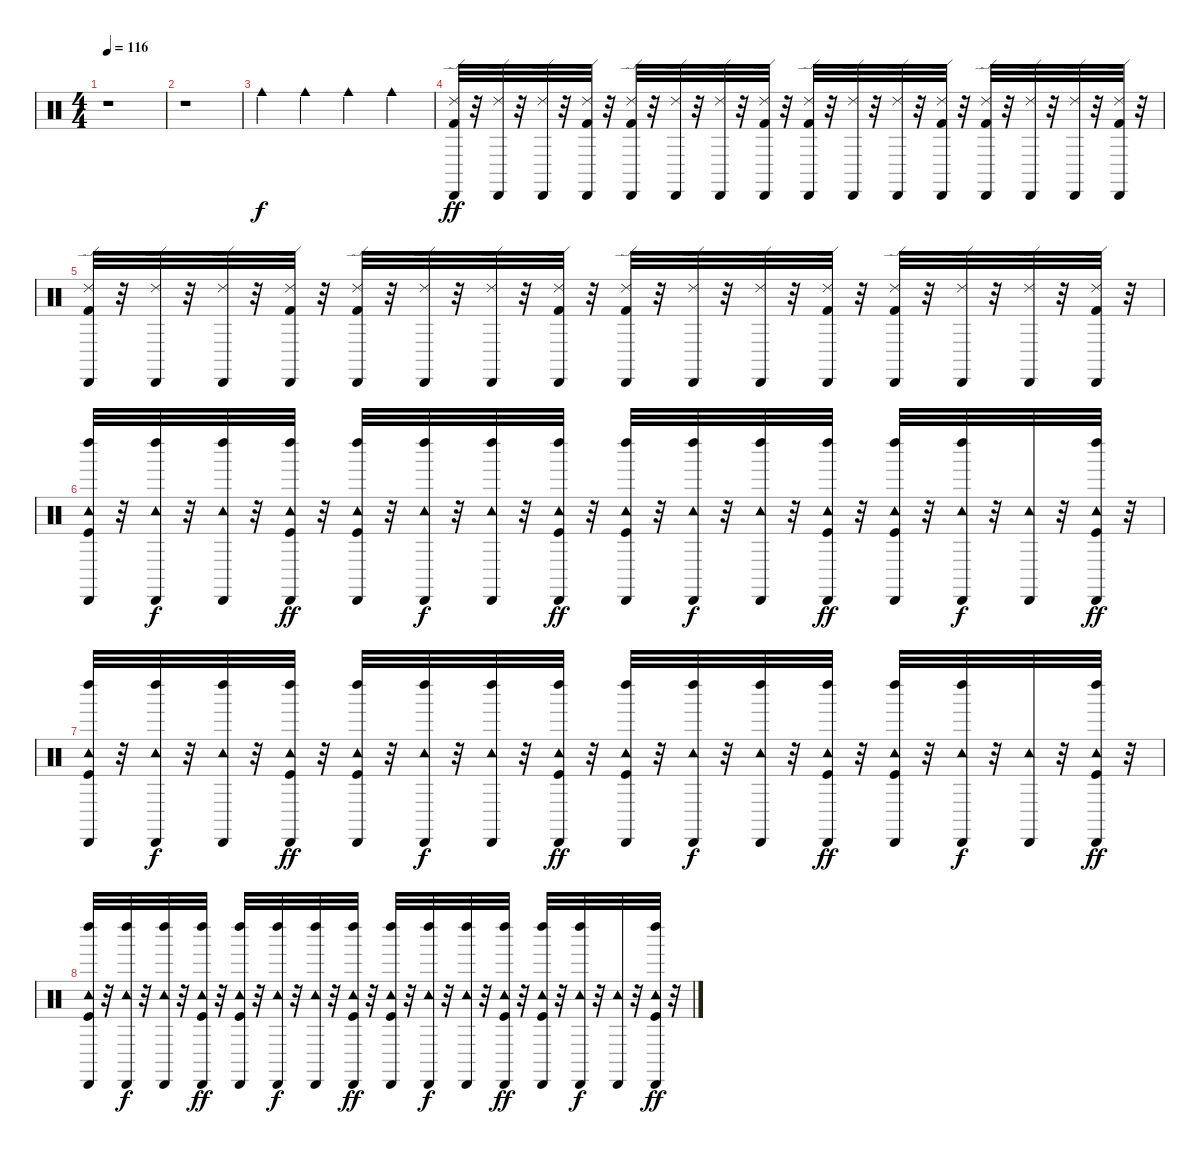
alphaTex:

\track "" {instrument percussion}
\staff {score}
\articulation defaults
\ts (4 4)
\tempo 116
\clef neutral
\ks c
r.1{dy f} |
r.1 |
"Cowbell medium (hit)".4 "Cowbell medium (hit)".4 "Cowbell medium (hit)".4 "Cowbell medium (hit)".4 |
("Kick (hit) 2" "Ride (edge) 2" "Cabasa (hit)").32{dy ff} r.32 ("Ride (edge) 2" "Cabasa (hit)").32 r.32 ("Ride (edge) 2" "Cabasa (hit)").32 r.32 ("Kick (hit) 2" "Ride (edge) 2" "Cabasa (hit)").32 r.32 ("Kick (hit) 2" "Ride (edge) 2" "Cabasa (hit)").32 r.32 ("Ride (edge) 2" "Cabasa (hit)").32 r.32 ("Ride (edge) 2" "Cabasa (hit)").32 r.32 ("Kick (hit) 2" "Ride (edge) 2" "Cabasa (hit)").32 r.32 ("Kick (hit) 2" "Ride (edge) 2" "Cabasa (hit)").32 r.32 ("Ride (edge) 2" "Cabasa (hit)").32 r.32 ("Ride (edge) 2" "Cabasa (hit)").32 r.32 ("Kick (hit) 2" "Ride (edge) 2" "Cabasa (hit)").32 r.32 ("Kick (hit) 2" "Ride (edge) 2" "Cabasa (hit)").32 r.32 ("Ride (edge) 2" "Cabasa (hit)").32 r.32 ("Ride (edge) 2" "Cabasa (hit)").32 r.32 ("Kick (hit) 2" "Ride (edge) 2" "Cabasa (hit)").32 r.32 |
("Kick (hit) 2" "Ride (edge) 2" "Cabasa (hit)").32 r.32 ("Ride (edge) 2" "Cabasa (hit)").32 r.32 ("Ride (edge) 2" "Cabasa (hit)").32 r.32 ("Kick (hit) 2" "Ride (edge) 2" "Cabasa (hit)").32 r.32 ("Kick (hit) 2" "Ride (edge) 2" "Cabasa (hit)").32 r.32 ("Ride (edge) 2" "Cabasa (hit)").32 r.32 ("Ride (edge) 2" "Cabasa (hit)").32 r.32 ("Kick (hit) 2" "Ride (edge) 2" "Cabasa (hit)").32 r.32 ("Kick (hit) 2" "Ride (edge) 2" "Cabasa (hit)").32 r.32 ("Ride (edge) 2" "Cabasa (hit)").32 r.32 ("Ride (edge) 2" "Cabasa (hit)").32 r.32 ("Kick (hit) 2" "Ride (edge) 2" "Cabasa (hit)").32 r.32 ("Kick (hit) 2" "Ride (edge) 2" "Cabasa (hit)").32 r.32 ("Ride (edge) 2" "Cabasa (hit)").32 r.32 ("Ride (edge) 2" "Cabasa (hit)").32 r.32 ("Kick (hit) 2" "Ride (edge) 2" "Cabasa (hit)").32 r.32 |
("Kick (hit)" "Tambourine (hit)" "Cabasa (hit)" "Left Maraca (hit)").32 r.32 ("Tambourine (hit)" "Cabasa (hit)" "Left Maraca (hit)").32{dy f} r.32 ("Tambourine (hit)" "Cabasa (hit)" "Left Maraca (hit)").32 r.32 ("Kick (hit)" "Tambourine (hit)" "Cabasa (hit)" "Left Maraca (hit)").32{dy ff} r.32 ("Kick (hit)" "Tambourine (hit)" "Cabasa (hit)" "Left Maraca (hit)").32 r.32 ("Tambourine (hit)" "Cabasa (hit)" "Left Maraca (hit)").32{dy f} r.32 ("Tambourine (hit)" "Cabasa (hit)" "Left Maraca (hit)").32 r.32 ("Kick (hit)" "Tambourine (hit)" "Cabasa (hit)" "Left Maraca (hit)").32{dy ff} r.32 ("Kick (hit)" "Tambourine (hit)" "Cabasa (hit)" "Left Maraca (hit)").32 r.32 ("Tambourine (hit)" "Cabasa (hit)" "Left Maraca (hit)").32{dy f} r.32 ("Tambourine (hit)" "Cabasa (hit)" "Left Maraca (hit)").32 r.32 ("Kick (hit)" "Tambourine (hit)" "Cabasa (hit)" "Left Maraca (hit)").32{dy ff} r.32 ("Kick (hit)" "Tambourine (hit)" "Cabasa (hit)" "Left Maraca (hit)").32 r.32 ("Tambourine (hit)" "Cabasa (hit)" "Left Maraca (hit)").32{dy f} r.32 ("Tambourine (hit)" "Cabasa (hit)").32 r.32 ("Kick (hit)" "Tambourine (hit)" "Cabasa (hit)" "Left Maraca (hit)").32{dy ff} r.32 |
("Kick (hit)" "Tambourine (hit)" "Cabasa (hit)" "Left Maraca (hit)").32 r.32 ("Tambourine (hit)" "Cabasa (hit)" "Left Maraca (hit)").32{dy f} r.32 ("Tambourine (hit)" "Cabasa (hit)" "Left Maraca (hit)").32 r.32 ("Kick (hit)" "Tambourine (hit)" "Cabasa (hit)" "Left Maraca (hit)").32{dy ff} r.32 ("Kick (hit)" "Tambourine (hit)" "Cabasa (hit)" "Left Maraca (hit)").32 r.32 ("Tambourine (hit)" "Cabasa (hit)" "Left Maraca (hit)").32{dy f} r.32 ("Tambourine (hit)" "Cabasa (hit)" "Left Maraca (hit)").32 r.32 ("Kick (hit)" "Tambourine (hit)" "Cabasa (hit)" "Left Maraca (hit)").32{dy ff} r.32 ("Kick (hit)" "Tambourine (hit)" "Cabasa (hit)" "Left Maraca (hit)").32 r.32 ("Tambourine (hit)" "Cabasa (hit)" "Left Maraca (hit)").32{dy f} r.32 ("Tambourine (hit)" "Cabasa (hit)" "Left Maraca (hit)").32 r.32 ("Kick (hit)" "Tambourine (hit)" "Cabasa (hit)" "Left Maraca (hit)").32{dy ff} r.32 ("Kick (hit)" "Tambourine (hit)" "Cabasa (hit)" "Left Maraca (hit)").32 r.32 ("Tambourine (hit)" "Cabasa (hit)" "Left Maraca (hit)").32{dy f} r.32 ("Tambourine (hit)" "Cabasa (hit)").32 r.32 ("Kick (hit)" "Tambourine (hit)" "Cabasa (hit)" "Left Maraca (hit)").32{dy ff} r.32 |
("Kick (hit)" "Tambourine (hit)" "Cabasa (hit)" "Left Maraca (hit)").32 r.32 ("Tambourine (hit)" "Cabasa (hit)" "Left Maraca (hit)").32{dy f} r.32 ("Tambourine (hit)" "Cabasa (hit)" "Left Maraca (hit)").32 r.32 ("Kick (hit)" "Tambourine (hit)" "Cabasa (hit)" "Left Maraca (hit)").32{dy ff} r.32 ("Kick (hit)" "Tambourine (hit)" "Cabasa (hit)" "Left Maraca (hit)").32 r.32 ("Tambourine (hit)" "Cabasa (hit)" "Left Maraca (hit)").32{dy f} r.32 ("Tambourine (hit)" "Cabasa (hit)" "Left Maraca (hit)").32 r.32 ("Kick (hit)" "Tambourine (hit)" "Cabasa (hit)" "Left Maraca (hit)").32{dy ff} r.32 ("Kick (hit)" "Tambourine (hit)" "Cabasa (hit)" "Left Maraca (hit)").32 r.32 ("Tambourine (hit)" "Cabasa (hit)" "Left Maraca (hit)").32{dy f} r.32 ("Tambourine (hit)" "Cabasa (hit)" "Left Maraca (hit)").32 r.32 ("Kick (hit)" "Tambourine (hit)" "Cabasa (hit)" "Left Maraca (hit)").32{dy ff} r.32 ("Kick (hit)" "Tambourine (hit)" "Cabasa (hit)" "Left Maraca (hit)").32 r.32 ("Tambourine (hit)" "Cabasa (hit)" "Left Maraca (hit)").32{dy f} r.32 ("Tambourine (hit)" "Cabasa (hit)").32 r.32 ("Kick (hit)" "Tambourine (hit)" "Cabasa (hit)" "Left Maraca (hit)").32{dy ff} r.32
